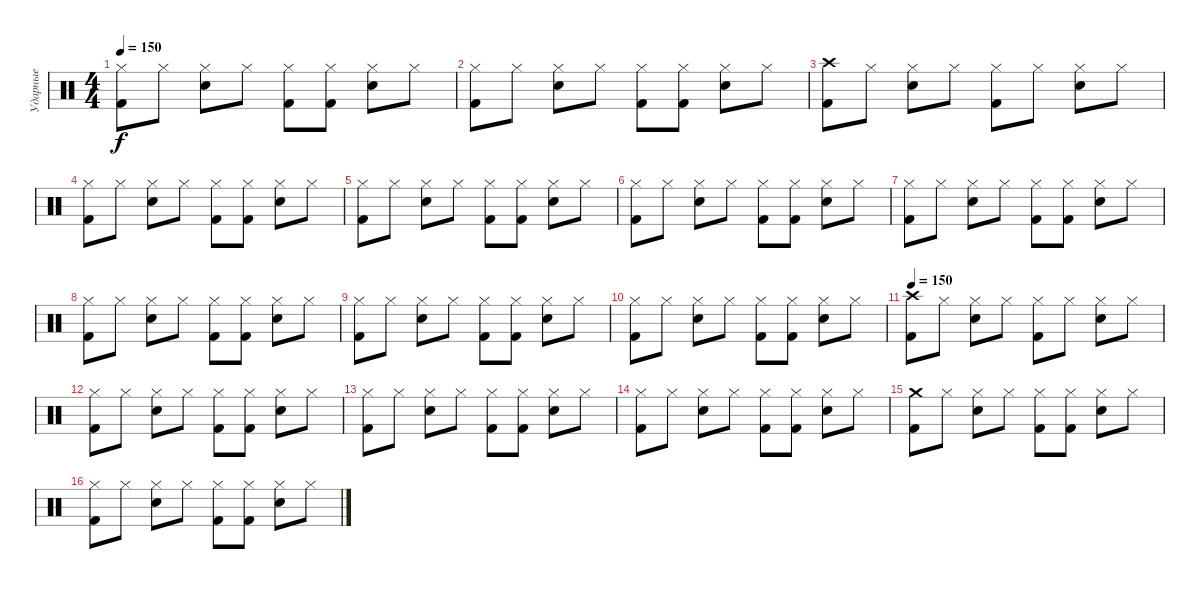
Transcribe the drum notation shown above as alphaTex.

\track ("Ударные" "Ударные") {instrument percussion}
\staff {score}
\articulation defaults
\ts (4 4)
\tempo 150
\clef neutral
\ks c
("Hi-Hat (closed)" "Kick (hit) 2").8{dy f} "Hi-Hat (closed)".8 ("Hi-Hat (closed)" "Snare (hit) 2").8 "Hi-Hat (closed)".8 ("Hi-Hat (closed)" "Kick (hit) 2").8 ("Hi-Hat (closed)" "Kick (hit) 2").8 ("Hi-Hat (closed)" "Snare (hit) 2").8 "Hi-Hat (closed)".8 |
("Hi-Hat (closed)" "Kick (hit) 2").8 "Hi-Hat (closed)".8 ("Hi-Hat (closed)" "Snare (hit) 2").8 "Hi-Hat (closed)".8 ("Hi-Hat (closed)" "Kick (hit) 2").8 ("Hi-Hat (closed)" "Kick (hit) 2").8 ("Hi-Hat (closed)" "Snare (hit) 2").8 "Hi-Hat (closed)".8 |
("Crash high (hit)" "Kick (hit) 2").8 "Hi-Hat (closed)".8 ("Hi-Hat (closed)" "Snare (hit) 2").8 "Hi-Hat (closed)".8 ("Hi-Hat (closed)" "Kick (hit) 2").8 "Hi-Hat (closed)".8 ("Hi-Hat (closed)" "Snare (hit) 2").8 "Hi-Hat (closed)".8 |
("Hi-Hat (closed)" "Kick (hit) 2").8 "Hi-Hat (closed)".8 ("Hi-Hat (closed)" "Snare (hit) 2").8 "Hi-Hat (closed)".8 ("Hi-Hat (closed)" "Kick (hit) 2").8 ("Hi-Hat (closed)" "Kick (hit) 2").8 ("Hi-Hat (closed)" "Snare (hit) 2").8 "Hi-Hat (closed)".8 |
("Hi-Hat (closed)" "Kick (hit) 2").8 "Hi-Hat (closed)".8 ("Hi-Hat (closed)" "Snare (hit) 2").8 "Hi-Hat (closed)".8 ("Hi-Hat (closed)" "Kick (hit) 2").8 ("Hi-Hat (closed)" "Kick (hit) 2").8 ("Hi-Hat (closed)" "Snare (hit) 2").8 "Hi-Hat (closed)".8 |
("Hi-Hat (closed)" "Kick (hit) 2").8 "Hi-Hat (closed)".8 ("Hi-Hat (closed)" "Snare (hit) 2").8 "Hi-Hat (closed)".8 ("Hi-Hat (closed)" "Kick (hit) 2").8 ("Hi-Hat (closed)" "Kick (hit) 2").8 ("Hi-Hat (closed)" "Snare (hit) 2").8 "Hi-Hat (closed)".8 |
("Hi-Hat (closed)" "Kick (hit) 2").8 "Hi-Hat (closed)".8 ("Hi-Hat (closed)" "Snare (hit) 2").8 "Hi-Hat (closed)".8 ("Hi-Hat (closed)" "Kick (hit) 2").8 ("Hi-Hat (closed)" "Kick (hit) 2").8 ("Hi-Hat (closed)" "Snare (hit) 2").8 "Hi-Hat (closed)".8 |
("Hi-Hat (closed)" "Kick (hit) 2").8 "Hi-Hat (closed)".8 ("Hi-Hat (closed)" "Snare (hit) 2").8 "Hi-Hat (closed)".8 ("Hi-Hat (closed)" "Kick (hit) 2").8 ("Hi-Hat (closed)" "Kick (hit) 2").8 ("Hi-Hat (closed)" "Snare (hit) 2").8 "Hi-Hat (closed)".8 |
("Hi-Hat (closed)" "Kick (hit) 2").8 "Hi-Hat (closed)".8 ("Hi-Hat (closed)" "Snare (hit) 2").8 "Hi-Hat (closed)".8 ("Hi-Hat (closed)" "Kick (hit) 2").8 ("Hi-Hat (closed)" "Kick (hit) 2").8 ("Hi-Hat (closed)" "Snare (hit) 2").8 "Hi-Hat (closed)".8 |
("Hi-Hat (closed)" "Kick (hit) 2").8 "Hi-Hat (closed)".8 ("Hi-Hat (closed)" "Snare (hit) 2").8 "Hi-Hat (closed)".8 ("Hi-Hat (closed)" "Kick (hit) 2").8 ("Hi-Hat (closed)" "Kick (hit) 2").8 ("Hi-Hat (closed)" "Snare (hit) 2").8 "Hi-Hat (closed)".8 |
\tempo 150
("Crash high (hit)" "Kick (hit) 2").8 "Hi-Hat (closed)".8 ("Hi-Hat (closed)" "Snare (hit) 2").8 "Hi-Hat (closed)".8 ("Hi-Hat (closed)" "Kick (hit) 2").8 "Hi-Hat (closed)".8 ("Hi-Hat (closed)" "Snare (hit) 2").8 "Hi-Hat (closed)".8 |
("Hi-Hat (closed)" "Kick (hit) 2").8 "Hi-Hat (closed)".8 ("Hi-Hat (closed)" "Snare (hit) 2").8 "Hi-Hat (closed)".8 ("Hi-Hat (closed)" "Kick (hit) 2").8 ("Hi-Hat (closed)" "Kick (hit) 2").8 ("Hi-Hat (closed)" "Snare (hit) 2").8 "Hi-Hat (closed)".8 |
("Hi-Hat (closed)" "Kick (hit) 2").8 "Hi-Hat (closed)".8 ("Hi-Hat (closed)" "Snare (hit) 2").8 "Hi-Hat (closed)".8 ("Hi-Hat (closed)" "Kick (hit) 2").8 ("Hi-Hat (closed)" "Kick (hit) 2").8 ("Hi-Hat (closed)" "Snare (hit) 2").8 "Hi-Hat (closed)".8 |
("Hi-Hat (closed)" "Kick (hit) 2").8 "Hi-Hat (closed)".8 ("Hi-Hat (closed)" "Snare (hit) 2").8 "Hi-Hat (closed)".8 ("Hi-Hat (closed)" "Kick (hit) 2").8 ("Hi-Hat (closed)" "Kick (hit) 2").8 ("Hi-Hat (closed)" "Snare (hit) 2").8 "Hi-Hat (closed)".8 |
("Crash medium (hit)" "Kick (hit) 2").8 "Hi-Hat (closed)".8 ("Hi-Hat (closed)" "Snare (hit) 2").8 "Hi-Hat (closed)".8 ("Hi-Hat (closed)" "Kick (hit) 2").8 ("Hi-Hat (closed)" "Kick (hit) 2").8 ("Hi-Hat (closed)" "Snare (hit) 2").8 "Hi-Hat (closed)".8 |
("Hi-Hat (closed)" "Kick (hit) 2").8 "Hi-Hat (closed)".8 ("Hi-Hat (closed)" "Snare (hit) 2").8 "Hi-Hat (closed)".8 ("Hi-Hat (closed)" "Kick (hit) 2").8 ("Hi-Hat (closed)" "Kick (hit) 2").8 ("Hi-Hat (closed)" "Snare (hit) 2").8 "Hi-Hat (closed)".8
